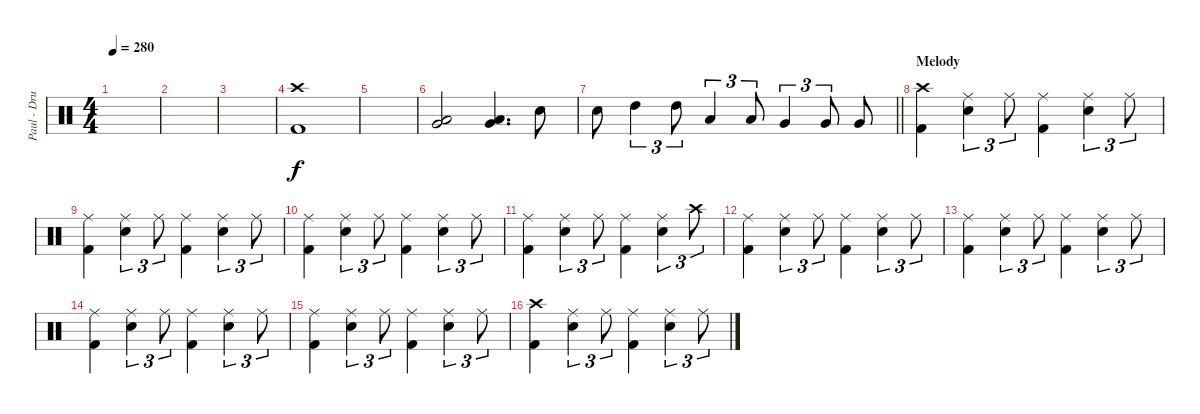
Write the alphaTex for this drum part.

\track ("Paul - Drums" "Paul - Dru") {instrument percussion}
\staff {score}
\articulation defaults
\ts (4 4)
\tempo 280
\clef neutral
\ks c
|
|
|
("Crash high (hit)" "Kick (hit) 2").1 |
|
("Low Tom (hit)" "Very Low Tom (hit)").2 ("Low Tom (hit)" "Very Low Tom (hit)").4{d} "Electric Snare (hit)".8 |
\barLineRight lightlight "Electric Snare (hit)".8 "High Tom (hit)".4{tu (3 2)} "High Tom (hit)".8{tu (3 2)} "Low Tom (hit)".4{tu (3 2)} "Low Tom (hit)".8{tu (3 2)} "Very Low Tom (hit)".4{tu (3 2)} "Very Low Tom (hit)".8{tu (3 2)} "Very Low Tom (hit)".8
|
\section ("" "Melody")
("Crash high (hit)" "Kick (hit) 2").4 ("Ride (middle)" "Electric Snare (hit)").4{tu (3 2)} "Ride (middle)".8{tu (3 2)} ("Ride (middle)" "Kick (hit) 2").4 ("Ride (middle)" "Electric Snare (hit)").4{tu (3 2)} "Ride (middle)".8{tu (3 2)} |
("Ride (middle)" "Kick (hit) 2").4 ("Ride (middle)" "Electric Snare (hit)").4{tu (3 2)} "Ride (middle)".8{tu (3 2)} ("Ride (middle)" "Kick (hit) 2").4 ("Ride (middle)" "Electric Snare (hit)").4{tu (3 2)} "Ride (middle)".8{tu (3 2)} |
("Ride (middle)" "Kick (hit) 2").4 ("Ride (middle)" "Electric Snare (hit)").4{tu (3 2)} "Ride (middle)".8{tu (3 2)} ("Ride (middle)" "Kick (hit) 2").4 ("Ride (middle)" "Electric Snare (hit)").4{tu (3 2)} "Ride (middle)".8{tu (3 2)} |
("Ride (middle)" "Kick (hit) 2").4 ("Ride (middle)" "Electric Snare (hit)").4{tu (3 2)} "Ride (middle)".8{tu (3 2)} ("Ride (middle)" "Kick (hit) 2").4 ("Ride (middle)" "Electric Snare (hit)").4{tu (3 2)} "Crash high (hit)".8{tu (3 2)} |
("Ride (middle)" "Kick (hit) 2").4 ("Ride (middle)" "Electric Snare (hit)").4{tu (3 2)} "Ride (middle)".8{tu (3 2)} ("Ride (middle)" "Kick (hit) 2").4 ("Ride (middle)" "Electric Snare (hit)").4{tu (3 2)} "Ride (middle)".8{tu (3 2)} |
("Ride (middle)" "Kick (hit) 2").4 ("Ride (middle)" "Electric Snare (hit)").4{tu (3 2)} "Ride (middle)".8{tu (3 2)} ("Ride (middle)" "Kick (hit) 2").4 ("Ride (middle)" "Electric Snare (hit)").4{tu (3 2)} "Ride (middle)".8{tu (3 2)} |
("Ride (middle)" "Kick (hit) 2").4 ("Ride (middle)" "Electric Snare (hit)").4{tu (3 2)} "Ride (middle)".8{tu (3 2)} ("Ride (middle)" "Kick (hit) 2").4 ("Ride (middle)" "Electric Snare (hit)").4{tu (3 2)} "Ride (middle)".8{tu (3 2)} |
("Ride (middle)" "Kick (hit) 2").4 ("Ride (middle)" "Electric Snare (hit)").4{tu (3 2)} "Ride (middle)".8{tu (3 2)} ("Ride (middle)" "Kick (hit) 2").4 ("Ride (middle)" "Electric Snare (hit)").4{tu (3 2)} "Ride (middle)".8{tu (3 2)} |
("Crash high (hit)" "Kick (hit) 2").4 ("Ride (middle)" "Electric Snare (hit)").4{tu (3 2)} "Ride (middle)".8{tu (3 2)} ("Ride (middle)" "Kick (hit) 2").4 ("Ride (middle)" "Electric Snare (hit)").4{tu (3 2)} "Ride (middle)".8{tu (3 2)}
